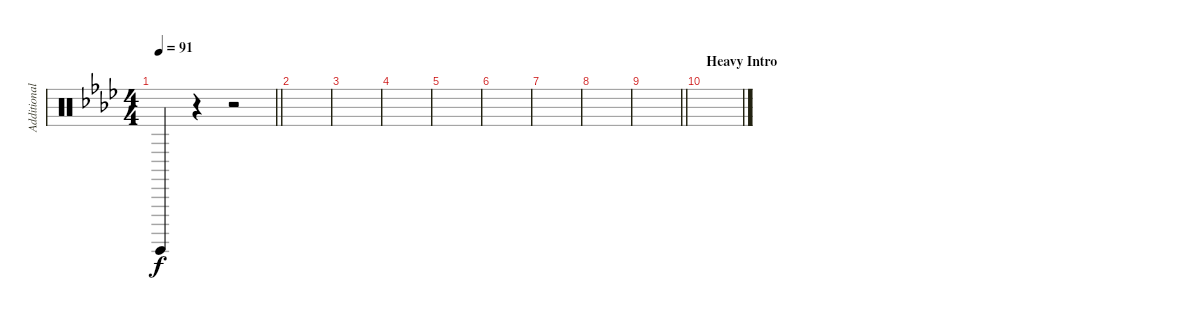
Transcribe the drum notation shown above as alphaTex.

\track ("Additional Percussion" "Additional") {instrument percussion}
\staff {score}
\articulation defaults
\ts (4 4)
\tempo 91
\clef neutral
\barLineRight lightlight
\ks fminor "Surdo (hit)".4{dy f}
r.4 r.2 |
\section ("" " ")
|
|
|
|
|
|
|
\barLineRight lightlight
|
\section ("" "Heavy Intro")
